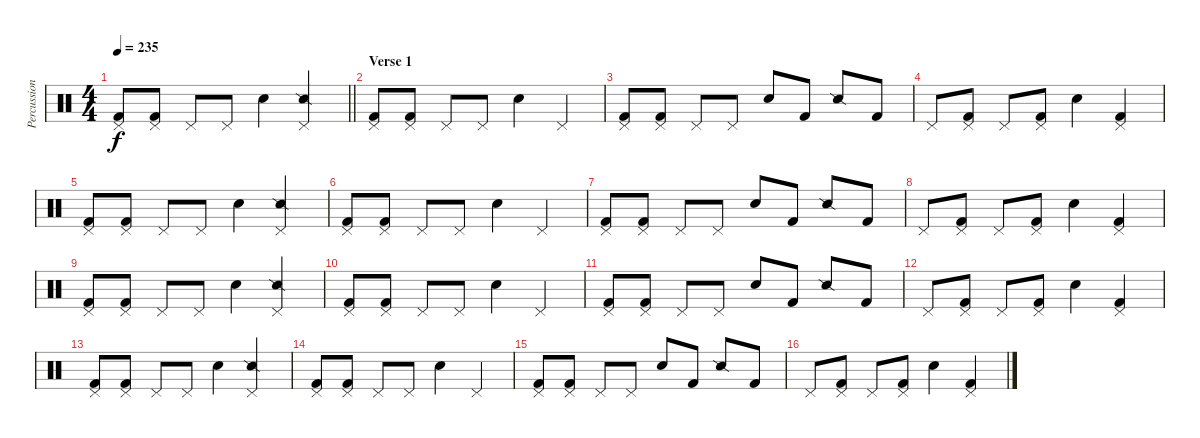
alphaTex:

\track ("Percussion" "Percussion") {instrument percussion}
\staff {score}
\articulation defaults
\ts (4 4)
\tempo 235
\clef neutral
\barLineRight lightlight
\ks c
("Kick (hit) 2" "Pedal Hi-Hat (hit)").8{dy f} ("Kick (hit) 2" "Pedal Hi-Hat (hit)").8 "Pedal Hi-Hat (hit)".8 "Pedal Hi-Hat (hit)".8 "Snare (hit) 2".4 ("Pedal Hi-Hat (hit)" "Snare (side stick) 2").4 |
\section ("" "Verse 1")
("Kick (hit) 2" "Pedal Hi-Hat (hit)").8 ("Kick (hit) 2" "Pedal Hi-Hat (hit)").8 "Pedal Hi-Hat (hit)".8 "Pedal Hi-Hat (hit)".8 "Snare (hit) 2".4 "Pedal Hi-Hat (hit)".4 |
("Kick (hit) 2" "Pedal Hi-Hat (hit)").8 ("Kick (hit) 2" "Pedal Hi-Hat (hit)").8 "Pedal Hi-Hat (hit)".8 "Pedal Hi-Hat (hit)".8 "Snare (hit) 2".8 "Kick (hit) 2".8 "Snare (side stick) 2".8 "Kick (hit) 2".8 |
"Pedal Hi-Hat (hit)".8 ("Pedal Hi-Hat (hit)" "Kick (hit) 2").8 "Pedal Hi-Hat (hit)".8 ("Pedal Hi-Hat (hit)" "Kick (hit) 2").8 "Snare (hit) 2".4 ("Kick (hit) 2" "Pedal Hi-Hat (hit)").4 |
("Kick (hit) 2" "Pedal Hi-Hat (hit)").8 ("Kick (hit) 2" "Pedal Hi-Hat (hit)").8 "Pedal Hi-Hat (hit)".8 "Pedal Hi-Hat (hit)".8 "Snare (hit) 2".4 ("Pedal Hi-Hat (hit)" "Snare (side stick) 2").4 |
("Kick (hit) 2" "Pedal Hi-Hat (hit)").8 ("Kick (hit) 2" "Pedal Hi-Hat (hit)").8 "Pedal Hi-Hat (hit)".8 "Pedal Hi-Hat (hit)".8 "Snare (hit) 2".4 "Pedal Hi-Hat (hit)".4 |
("Kick (hit) 2" "Pedal Hi-Hat (hit)").8 ("Kick (hit) 2" "Pedal Hi-Hat (hit)").8 "Pedal Hi-Hat (hit)".8 "Pedal Hi-Hat (hit)".8 "Snare (hit) 2".8 "Kick (hit) 2".8 "Snare (side stick) 2".8 "Kick (hit) 2".8 |
"Pedal Hi-Hat (hit)".8 ("Pedal Hi-Hat (hit)" "Kick (hit) 2").8 "Pedal Hi-Hat (hit)".8 ("Pedal Hi-Hat (hit)" "Kick (hit) 2").8 "Snare (hit) 2".4 ("Kick (hit) 2" "Pedal Hi-Hat (hit)").4 |
("Kick (hit) 2" "Pedal Hi-Hat (hit)").8 ("Kick (hit) 2" "Pedal Hi-Hat (hit)").8 "Pedal Hi-Hat (hit)".8 "Pedal Hi-Hat (hit)".8 "Snare (hit) 2".4 ("Pedal Hi-Hat (hit)" "Snare (side stick) 2").4 |
("Kick (hit) 2" "Pedal Hi-Hat (hit)").8 ("Kick (hit) 2" "Pedal Hi-Hat (hit)").8 "Pedal Hi-Hat (hit)".8 "Pedal Hi-Hat (hit)".8 "Snare (hit) 2".4 "Pedal Hi-Hat (hit)".4 |
("Kick (hit) 2" "Pedal Hi-Hat (hit)").8 ("Kick (hit) 2" "Pedal Hi-Hat (hit)").8 "Pedal Hi-Hat (hit)".8 "Pedal Hi-Hat (hit)".8 "Snare (hit) 2".8 "Kick (hit) 2".8 "Snare (side stick) 2".8 "Kick (hit) 2".8 |
"Pedal Hi-Hat (hit)".8 ("Pedal Hi-Hat (hit)" "Kick (hit) 2").8 "Pedal Hi-Hat (hit)".8 ("Pedal Hi-Hat (hit)" "Kick (hit) 2").8 "Snare (hit) 2".4 ("Kick (hit) 2" "Pedal Hi-Hat (hit)").4 |
("Kick (hit) 2" "Pedal Hi-Hat (hit)").8 ("Kick (hit) 2" "Pedal Hi-Hat (hit)").8 "Pedal Hi-Hat (hit)".8 "Pedal Hi-Hat (hit)".8 "Snare (hit) 2".4 ("Pedal Hi-Hat (hit)" "Snare (side stick) 2").4 |
("Kick (hit) 2" "Pedal Hi-Hat (hit)").8 ("Kick (hit) 2" "Pedal Hi-Hat (hit)").8 "Pedal Hi-Hat (hit)".8 "Pedal Hi-Hat (hit)".8 "Snare (hit) 2".4 "Pedal Hi-Hat (hit)".4 |
("Kick (hit) 2" "Pedal Hi-Hat (hit)").8 ("Kick (hit) 2" "Pedal Hi-Hat (hit)").8 "Pedal Hi-Hat (hit)".8 "Pedal Hi-Hat (hit)".8 "Snare (hit) 2".8 "Kick (hit) 2".8 "Snare (side stick) 2".8 "Kick (hit) 2".8 |
"Pedal Hi-Hat (hit)".8 ("Pedal Hi-Hat (hit)" "Kick (hit) 2").8 "Pedal Hi-Hat (hit)".8 ("Pedal Hi-Hat (hit)" "Kick (hit) 2").8 "Snare (hit) 2".4 ("Kick (hit) 2" "Pedal Hi-Hat (hit)").4
